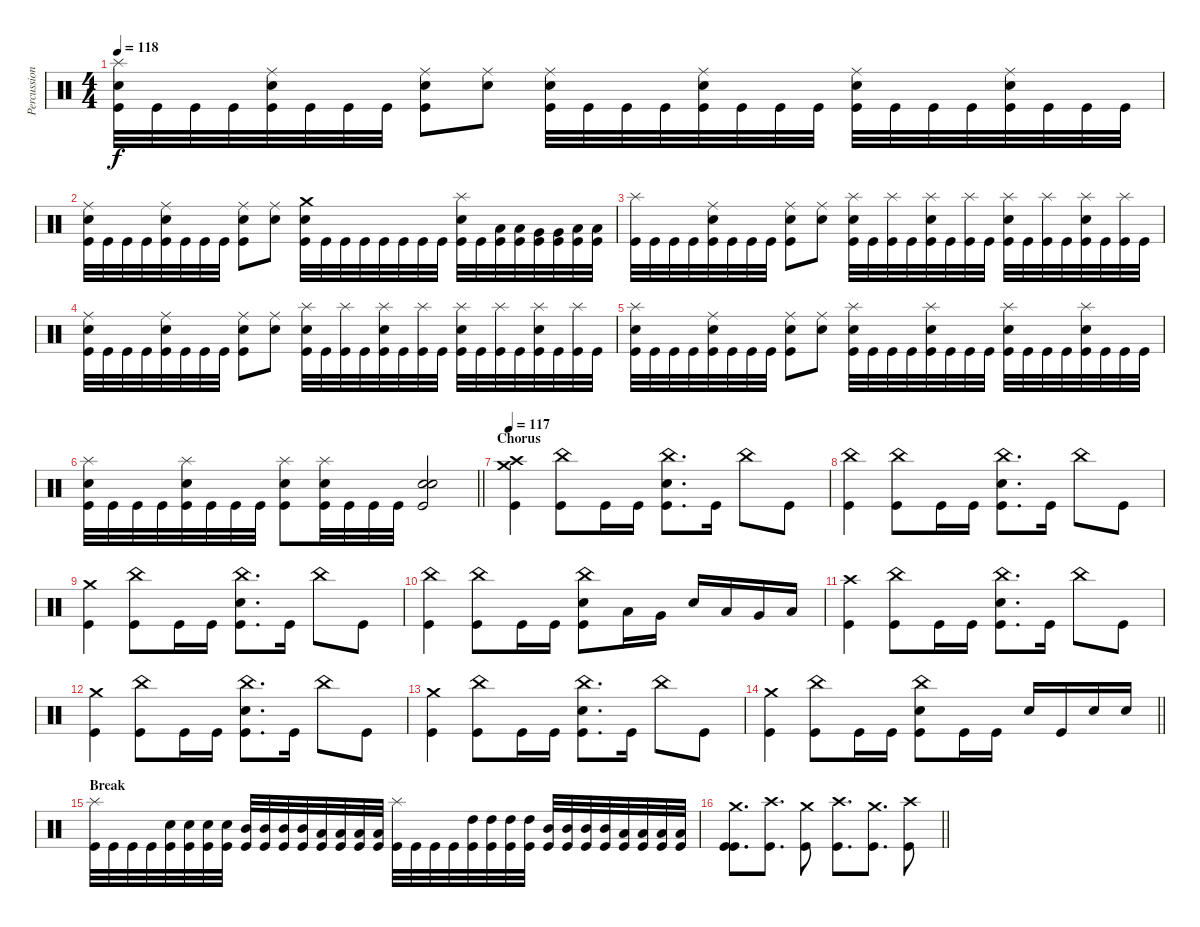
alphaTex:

\track ("Percussion" "Percussion") {instrument percussion}
\staff {score}
\articulation defaults
\ts (4 4)
\tempo 118
\clef neutral
\ks c
("Splash (hit)" "Electric Snare (hit)" "Kick (hit)").32{dy f} "Kick (hit)".32 "Kick (hit)".32 "Kick (hit)".32 ("Ride (middle)" "Electric Snare (hit)" "Kick (hit)").32 "Kick (hit)".32 "Kick (hit)".32 "Kick (hit)".32 ("Ride (middle)" "Electric Snare (hit)" "Kick (hit)").8 ("Ride (middle)" "Electric Snare (hit)").8 ("Ride (middle)" "Electric Snare (hit)" "Kick (hit)").32 "Kick (hit)".32 "Kick (hit)".32 "Kick (hit)".32 ("Ride (middle)" "Electric Snare (hit)" "Kick (hit)").32 "Kick (hit)".32 "Kick (hit)".32 "Kick (hit)".32 ("Ride (middle)" "Electric Snare (hit)" "Kick (hit)").32 "Kick (hit)".32 "Kick (hit)".32 "Kick (hit)".32 ("Ride (middle)" "Electric Snare (hit)" "Kick (hit)").32 "Kick (hit)".32 "Kick (hit)".32 "Kick (hit)".32 |
("Ride (middle)" "Electric Snare (hit)" "Kick (hit)").32 "Kick (hit)".32 "Kick (hit)".32 "Kick (hit)".32 ("Ride (middle)" "Electric Snare (hit)" "Kick (hit)").32 "Kick (hit)".32 "Kick (hit)".32 "Kick (hit)".32 ("Ride (middle)" "Electric Snare (hit)" "Kick (hit)").8 ("Ride (middle)" "Electric Snare (hit)").8 ("Crash medium (hit)" "Electric Snare (hit)" "Kick (hit)").32 "Kick (hit)".32 "Kick (hit)".32 "Kick (hit)".32 "Kick (hit)".32 "Kick (hit)".32 "Kick (hit)".32 "Kick (hit)".32 ("Splash (hit)" "Electric Snare (hit)" "Kick (hit)").32 "Kick (hit)".32 ("Low Tom (hit)" "Kick (hit)").32 ("Low Tom (hit)" "Kick (hit)").32 ("Very Low Tom (hit)" "Kick (hit)").32 ("Very Low Tom (hit)" "Kick (hit)").32 ("Low Floor Tom (hit)" "Kick (hit)").32 ("Low Floor Tom (hit)" "Kick (hit)").32 |
("Splash (hit)" "Kick (hit)").32 "Kick (hit)".32 "Kick (hit)".32 "Kick (hit)".32 ("Ride (middle)" "Electric Snare (hit)" "Kick (hit)").32 "Kick (hit)".32 "Kick (hit)".32 "Kick (hit)".32 ("Ride (middle)" "Electric Snare (hit)" "Kick (hit)").8 ("Ride (middle)" "Electric Snare (hit)").8 ("Splash (hit)" "Electric Snare (hit)" "Kick (hit)").32 "Kick (hit)".32 ("Splash (hit)" "Kick (hit)").32 "Kick (hit)".32 ("Splash (hit)" "Electric Snare (hit)" "Kick (hit)").32 "Kick (hit)".32 ("Splash (hit)" "Kick (hit)").32 "Kick (hit)".32 ("Splash (hit)" "Electric Snare (hit)" "Kick (hit)").32 "Kick (hit)".32 ("Splash (hit)" "Kick (hit)").32 "Kick (hit)".32 ("Splash (hit)" "Electric Snare (hit)" "Kick (hit)").32 "Kick (hit)".32 ("Splash (hit)" "Kick (hit)").32 "Kick (hit)".32 |
("Ride (middle)" "Electric Snare (hit)" "Kick (hit)").32 "Kick (hit)".32 "Kick (hit)".32 "Kick (hit)".32 ("Ride (middle)" "Electric Snare (hit)" "Kick (hit)").32 "Kick (hit)".32 "Kick (hit)".32 "Kick (hit)".32 ("Ride (middle)" "Electric Snare (hit)" "Kick (hit)").8 ("Ride (middle)" "Electric Snare (hit)").8 ("Splash (hit)" "Electric Snare (hit)" "Kick (hit)").32 "Kick (hit)".32 ("Splash (hit)" "Kick (hit)").32 "Kick (hit)".32 ("Splash (hit)" "Electric Snare (hit)" "Kick (hit)").32 "Kick (hit)".32 ("Splash (hit)" "Kick (hit)").32 "Kick (hit)".32 ("Splash (hit)" "Electric Snare (hit)" "Kick (hit)").32 "Kick (hit)".32 ("Splash (hit)" "Kick (hit)").32 "Kick (hit)".32 ("Splash (hit)" "Electric Snare (hit)" "Kick (hit)").32 "Kick (hit)".32 ("Splash (hit)" "Kick (hit)").32 "Kick (hit)".32 |
("Splash (hit)" "Electric Snare (hit)" "Kick (hit)").32 "Kick (hit)".32 "Kick (hit)".32 "Kick (hit)".32 ("Ride (middle)" "Electric Snare (hit)" "Kick (hit)").32 "Kick (hit)".32 "Kick (hit)".32 "Kick (hit)".32 ("Ride (middle)" "Electric Snare (hit)" "Kick (hit)").8 ("Ride (middle)" "Electric Snare (hit)").8 ("Splash (hit)" "Electric Snare (hit)" "Kick (hit)").32 "Kick (hit)".32 "Kick (hit)".32 "Kick (hit)".32 ("Splash (hit)" "Electric Snare (hit)" "Kick (hit)").32 "Kick (hit)".32 "Kick (hit)".32 "Kick (hit)".32 ("Splash (hit)" "Electric Snare (hit)" "Kick (hit)").32 "Kick (hit)".32 "Kick (hit)".32 "Kick (hit)".32 ("Splash (hit)" "Electric Snare (hit)" "Kick (hit)").32 "Kick (hit)".32 "Kick (hit)".32 "Kick (hit)".32 |
\barLineRight lightlight
("Splash (hit)" "Electric Snare (hit)" "Kick (hit)").32 "Kick (hit)".32 "Kick (hit)".32 "Kick (hit)".32 ("Splash (hit)" "Electric Snare (hit)" "Kick (hit)").32 "Kick (hit)".32 "Kick (hit)".32 "Kick (hit)".32 ("Splash (hit)" "Electric Snare (hit)" "Kick (hit)").8 ("Splash (hit)" "Electric Snare (hit)" "Kick (hit)").32 "Kick (hit)".32 "Kick (hit)".32 "Kick (hit)".32 ("Electric Snare (hit)" "Electric Snare (hit)" "Kick (hit)").2 |
\section ("" "Chorus")
\tempo 117
("Crash high (hit)" "Crash medium (hit)" "Kick (hit)").4 ("China (hit)" "Kick (hit)").8 "Kick (hit)".16 "Kick (hit)".16 ("China (hit)" "Electric Snare (hit)" "Kick (hit)").8{d} "Kick (hit)".16 "China (hit)".8 "Kick (hit)".8 |
("China (hit)" "Kick (hit)").4 ("China (hit)" "Kick (hit)").8 "Kick (hit)".16 "Kick (hit)".16 ("China (hit)" "Electric Snare (hit)" "Kick (hit)").8{d} "Kick (hit)".16 "China (hit)".8 "Kick (hit)".8 |
("Crash medium (hit)" "Kick (hit)").4 ("China (hit)" "Kick (hit)").8 "Kick (hit)".16 "Kick (hit)".16 ("China (hit)" "Electric Snare (hit)" "Kick (hit)").8{d} "Kick (hit)".16 "China (hit)".8 "Kick (hit)".8 |
("China (hit)" "Kick (hit)").4 ("China (hit)" "Kick (hit)").8 "Kick (hit)".16 "Kick (hit)".16 ("China (hit)" "Electric Snare (hit)" "Kick (hit)").8 "Low Tom (hit)".16 "Very Low Tom (hit)".16 "Electric Snare (hit)".16 "Low Tom (hit)".16 "Very Low Tom (hit)".16 "Low Tom (hit)".16 |
("Crash high (hit)" "Kick (hit)").4 ("China (hit)" "Kick (hit)").8 "Kick (hit)".16 "Kick (hit)".16 ("China (hit)" "Electric Snare (hit)" "Kick (hit)").8{d} "Kick (hit)".16 "China (hit)".8 "Kick (hit)".8 |
("Crash medium (hit)" "Kick (hit)").4 ("China (hit)" "Kick (hit)").8 "Kick (hit)".16 "Kick (hit)".16 ("China (hit)" "Electric Snare (hit)" "Kick (hit)").8{d} "Kick (hit)".16 "China (hit)".8 "Kick (hit)".8 |
("Crash medium (hit)" "Kick (hit)").4 ("China (hit)" "Kick (hit)").8 "Kick (hit)".16 "Kick (hit)".16 ("China (hit)" "Electric Snare (hit)" "Kick (hit)").8{d} "Kick (hit)".16 "China (hit)".8 "Kick (hit)".8 |
\barLineRight lightlight
("Crash medium (hit)" "Kick (hit)").4 ("China (hit)" "Kick (hit)").8 "Kick (hit)".16 "Kick (hit)".16 ("China (hit)" "Electric Snare (hit)" "Kick (hit)").8 "Kick (hit)".16 "Kick (hit)".16 "Electric Snare (hit)".16 "Kick (hit)".16 "Electric Snare (hit)".16 "Electric Snare (hit)".16 |
\section ("" "Break")
("Splash (hit)" "Kick (hit)").32 "Kick (hit)".32 "Kick (hit)".32 "Kick (hit)".32 ("Electric Snare (hit)" "Kick (hit)").32 ("Electric Snare (hit)" "Kick (hit)").32 ("Electric Snare (hit)" "Kick (hit)").32 ("Electric Snare (hit)" "Kick (hit)").32 ("Mid Tom (hit)" "Kick (hit)").32 ("Mid Tom (hit)" "Kick (hit)").32 ("Mid Tom (hit)" "Kick (hit)").32 ("Mid Tom (hit)" "Kick (hit)").32 ("Low Tom (hit)" "Kick (hit)").32 ("Low Tom (hit)" "Kick (hit)").32 ("Low Tom (hit)" "Kick (hit)").32 ("Low Tom (hit)" "Kick (hit)").32 ("Splash (hit)" "Kick (hit)").32 "Kick (hit)".32 "Kick (hit)".32 "Kick (hit)".32 ("High Tom (hit)" "Kick (hit)").32 ("High Tom (hit)" "Kick (hit)").32 ("High Tom (hit)" "Kick (hit)").32 ("High Tom (hit)" "Kick (hit)").32 ("Mid Tom (hit)" "Kick (hit)").32 ("Mid Tom (hit)" "Kick (hit)").32 ("Mid Tom (hit)" "Kick (hit)").32 ("Mid Tom (hit)" "Kick (hit)").32 ("Low Tom (hit)" "Kick (hit)").32 ("Low Tom (hit)" "Kick (hit)").32 ("Low Tom (hit)" "Kick (hit)").32 ("Low Tom (hit)" "Kick (hit)").32 |
\barLineRight lightlight
("Crash medium (hit)" "Kick (hit)" "Kick (hit)").8{d} ("Crash high (hit)" "Kick (hit)").8{d} ("Crash medium (hit)" "Kick (hit)").8 ("Crash high (hit)" "Kick (hit)").8{d} ("Crash medium (hit)" "Kick (hit)").8{d} ("Crash high (hit)" "Kick (hit)").8
